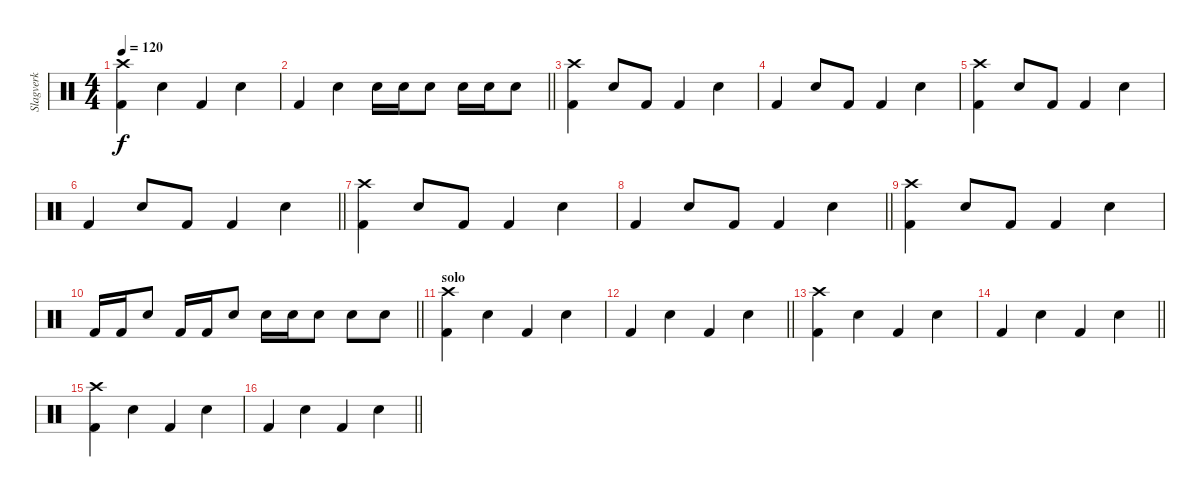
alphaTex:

\track ("Slagverk" "Slagverk") {instrument percussion}
\staff {score}
\articulation defaults
\ts (4 4)
\tempo 120
\clef neutral
\ks c
("Kick (hit) 2" "Crash high (hit)").4{dy f} "Snare (hit) 2".4 "Kick (hit) 2".4 "Snare (hit) 2".4 |
\barLineRight lightlight "Kick (hit) 2".4 "Snare (hit) 2".4 "Snare (hit) 2".16 "Snare (hit) 2".16 "Snare (hit) 2".8 "Snare (hit) 2".16 "Snare (hit) 2".16 "Snare (hit) 2".8
|
("Kick (hit) 2" "Crash high (hit)").4 "Snare (hit) 2".8 "Kick (hit) 2".8 "Kick (hit) 2".4 "Snare (hit) 2".4 |
"Kick (hit) 2".4 "Snare (hit) 2".8 "Kick (hit) 2".8 "Kick (hit) 2".4 "Snare (hit) 2".4 |
("Kick (hit) 2" "Crash high (hit)").4 "Snare (hit) 2".8 "Kick (hit) 2".8 "Kick (hit) 2".4 "Snare (hit) 2".4 |
\barLineRight lightlight "Kick (hit) 2".4 "Snare (hit) 2".8 "Kick (hit) 2".8 "Kick (hit) 2".4 "Snare (hit) 2".4
|
("Kick (hit) 2" "Crash high (hit)").4 "Snare (hit) 2".8 "Kick (hit) 2".8 "Kick (hit) 2".4 "Snare (hit) 2".4 |
\barLineRight lightlight "Kick (hit) 2".4 "Snare (hit) 2".8 "Kick (hit) 2".8 "Kick (hit) 2".4 "Snare (hit) 2".4
|
("Kick (hit) 2" "Crash high (hit)").4 "Snare (hit) 2".8 "Kick (hit) 2".8 "Kick (hit) 2".4 "Snare (hit) 2".4 |
\barLineRight lightlight "Kick (hit) 2".16 "Kick (hit) 2".16 "Snare (hit) 2".8 "Kick (hit) 2".16 "Kick (hit) 2".16 "Snare (hit) 2".8 "Snare (hit) 2".16 "Snare (hit) 2".16 "Snare (hit) 2".8 "Snare (hit) 2".8 "Snare (hit) 2".8
|
\section ("" "solo")
("Kick (hit) 2" "Crash high (hit)").4 "Snare (hit) 2".4 "Kick (hit) 2".4 "Snare (hit) 2".4 |
\barLineRight lightlight "Kick (hit) 2".4 "Snare (hit) 2".4 "Kick (hit) 2".4 "Snare (hit) 2".4
|
("Kick (hit) 2" "Crash high (hit)").4 "Snare (hit) 2".4 "Kick (hit) 2".4 "Snare (hit) 2".4 |
\barLineRight lightlight "Kick (hit) 2".4 "Snare (hit) 2".4 "Kick (hit) 2".4 "Snare (hit) 2".4
|
("Kick (hit) 2" "Crash high (hit)").4 "Snare (hit) 2".4 "Kick (hit) 2".4 "Snare (hit) 2".4 |
\barLineRight lightlight "Kick (hit) 2".4 "Snare (hit) 2".4 "Kick (hit) 2".4 "Snare (hit) 2".4
